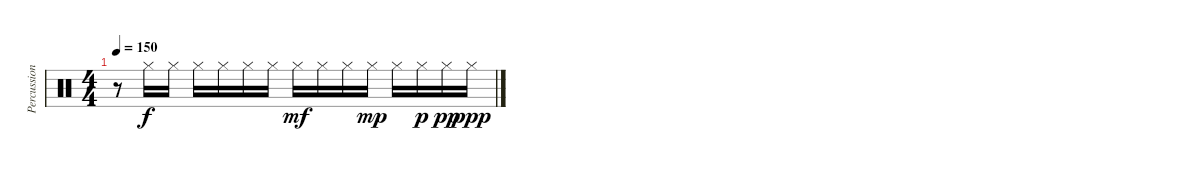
\track ("Percussions" "Percussion") {instrument percussion}
\staff {score}
\articulation defaults
\ts (4 4)
\tempo 150
\clef neutral
\ks c
r.8{dy f} "Hi-Hat (closed)".16 "Hi-Hat (closed)".16 "Hi-Hat (closed)".16 "Hi-Hat (closed)".16 "Hi-Hat (closed)".16 "Hi-Hat (closed)".16 "Hi-Hat (closed)".16{dy mf} "Hi-Hat (closed)".16 "Hi-Hat (closed)".16 "Hi-Hat (closed)".16{dy mp} "Hi-Hat (closed)".16 "Hi-Hat (closed)".16{dy p} "Hi-Hat (closed)".16{dy pp} "Hi-Hat (closed)".16{dy ppp}
